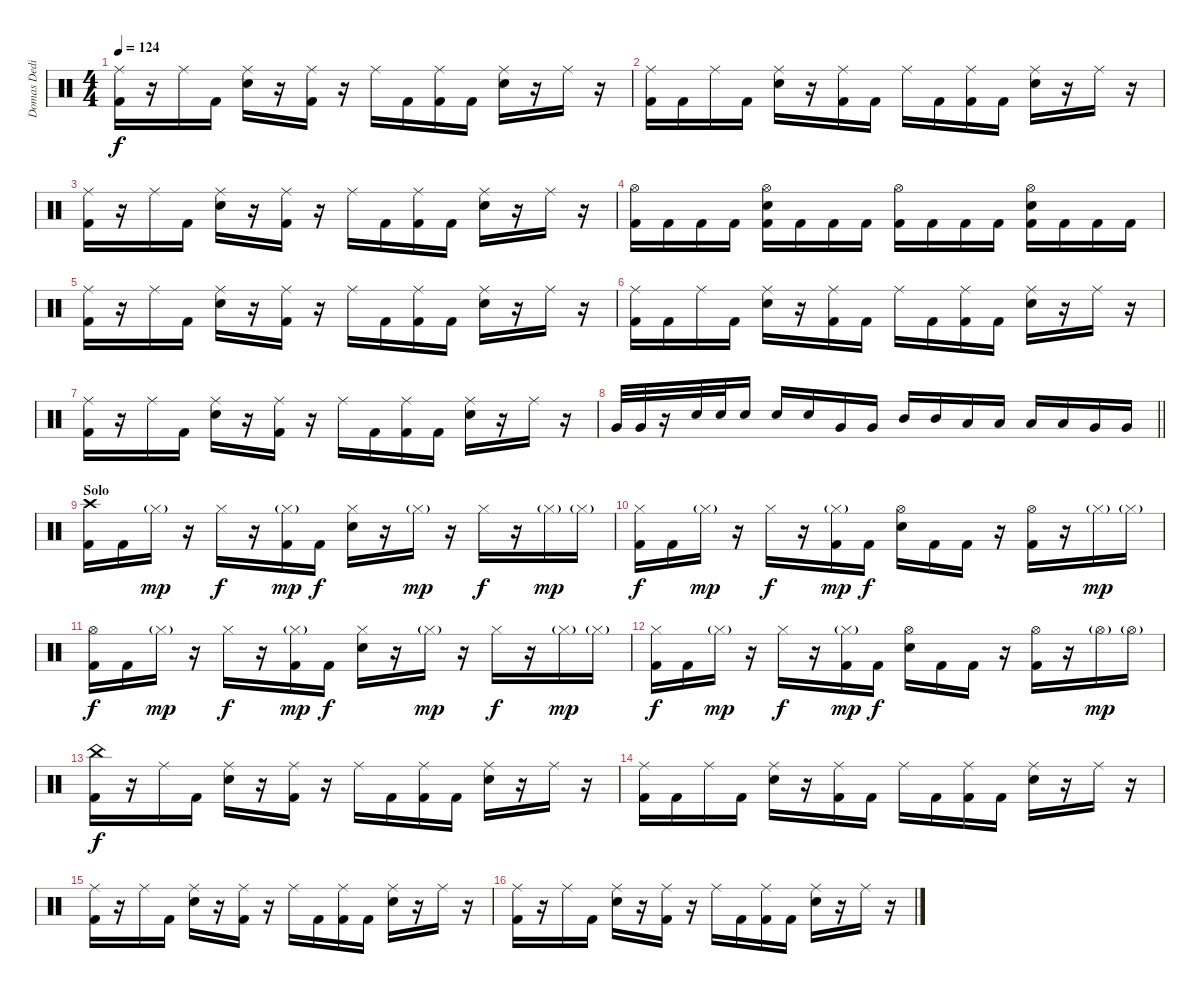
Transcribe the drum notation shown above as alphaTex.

\track ("Domas Dedinas" "Domas Dedi") {instrument percussion}
\staff {score}
\articulation defaults
\ts (4 4)
\tempo 124
\clef neutral
\ks c
("Ride (middle)" "Kick (hit) 2").16{dy f} r.16 "Ride (middle)".16 "Kick (hit) 2".16 ("Ride (middle)" "Snare (hit) 2").16 r.16 ("Ride (middle)" "Kick (hit) 2").16 r.16 "Ride (middle)".16 "Kick (hit) 2".16 ("Ride (middle)" "Kick (hit) 2").16 "Kick (hit) 2".16 ("Ride (middle)" "Snare (hit) 2").16 r.16 "Ride (middle)".16 r.16 |
("Ride (middle)" "Kick (hit) 2").16 "Kick (hit) 2".16 "Ride (middle)".16 "Kick (hit) 2".16 ("Ride (middle)" "Snare (hit) 2").16 r.16 ("Ride (middle)" "Kick (hit) 2").16 "Kick (hit) 2".16 "Ride (middle)".16 "Kick (hit) 2".16 ("Ride (middle)" "Kick (hit) 2").16 "Kick (hit) 2".16 ("Ride (middle)" "Snare (hit) 2").16 r.16 "Ride (middle)".16 r.16 |
("Ride (middle)" "Kick (hit) 2").16 r.16 "Ride (middle)".16 "Kick (hit) 2".16 ("Ride (middle)" "Snare (hit) 2").16 r.16 ("Ride (middle)" "Kick (hit) 2").16 r.16 "Ride (middle)".16 "Kick (hit) 2".16 ("Ride (middle)" "Kick (hit) 2").16 "Kick (hit) 2".16 ("Ride (middle)" "Snare (hit) 2").16 r.16 "Ride (middle)".16 r.16 |
("Hi-Hat (open)" "Kick (hit) 2").16 "Kick (hit) 2".16 "Kick (hit) 2".16 "Kick (hit) 2".16 ("Hi-Hat (open)" "Snare (hit) 2" "Kick (hit) 2").16 "Kick (hit) 2".16 "Kick (hit) 2".16 "Kick (hit) 2".16 ("Hi-Hat (open)" "Kick (hit) 2").16 "Kick (hit) 2".16 "Kick (hit) 2".16 "Kick (hit) 2".16 ("Hi-Hat (open)" "Snare (hit) 2" "Kick (hit) 2").16 "Kick (hit) 2".16 "Kick (hit) 2".16 "Kick (hit) 2".16 |
("Ride (middle)" "Kick (hit) 2").16 r.16 "Ride (middle)".16 "Kick (hit) 2".16 ("Ride (middle)" "Snare (hit) 2").16 r.16 ("Ride (middle)" "Kick (hit) 2").16 r.16 "Ride (middle)".16 "Kick (hit) 2".16 ("Ride (middle)" "Kick (hit) 2").16 "Kick (hit) 2".16 ("Ride (middle)" "Snare (hit) 2").16 r.16 "Ride (middle)".16 r.16 |
("Ride (middle)" "Kick (hit) 2").16 "Kick (hit) 2".16 "Ride (middle)".16 "Kick (hit) 2".16 ("Ride (middle)" "Snare (hit) 2").16 r.16 ("Ride (middle)" "Kick (hit) 2").16 "Kick (hit) 2".16 "Ride (middle)".16 "Kick (hit) 2".16 ("Ride (middle)" "Kick (hit) 2").16 "Kick (hit) 2".16 ("Ride (middle)" "Snare (hit) 2").16 r.16 "Ride (middle)".16 r.16 |
("Ride (middle)" "Kick (hit) 2").16 r.16 "Ride (middle)".16 "Kick (hit) 2".16 ("Ride (middle)" "Snare (hit) 2").16 r.16 ("Ride (middle)" "Kick (hit) 2").16 r.16 "Ride (middle)".16 "Kick (hit) 2".16 ("Ride (middle)" "Kick (hit) 2").16 "Kick (hit) 2".16 ("Ride (middle)" "Snare (hit) 2").16 r.16 "Ride (middle)".16 r.16 |
\barLineRight lightlight "Very Low Tom (hit)".32 "Very Low Tom (hit)".32
r.16 "Snare (hit) 2".32 "Snare (hit) 2".32 "Snare (hit) 2".16 "Snare (hit) 2".16 "Snare (hit) 2".16 "Very Low Tom (hit)".16 "Very Low Tom (hit)".16 "Mid Tom (hit)".16 "Mid Tom (hit)".16 "Low Tom (hit)".16 "Low Tom (hit)".16 "Low Tom (hit)".16 "Low Tom (hit)".16 "Very Low Tom (hit)".16 "Very Low Tom (hit)".16 |
\section ("" "Solo")
("Crash high (hit)" "Kick (hit) 2").16 "Kick (hit) 2".16 "Hi-Hat (closed)"{g}.16{dy mp} r.16 "Hi-Hat (closed)".16{dy f} r.16 ("Hi-Hat (closed)"{g} "Kick (hit) 2").16{dy mp} "Kick (hit) 2".16{dy f} ("Hi-Hat (closed)" "Snare (hit) 2").16 r.16 "Hi-Hat (closed)"{g}.16{dy mp} r.16 "Hi-Hat (closed)".16{dy f} r.16 "Hi-Hat (closed)"{g}.16{dy mp} "Hi-Hat (closed)"{g}.16 |
("Hi-Hat (closed)" "Kick (hit) 2").16{dy f} "Kick (hit) 2".16 "Hi-Hat (closed)"{g}.16{dy mp} r.16 "Hi-Hat (closed)".16{dy f} r.16 ("Hi-Hat (closed)"{g} "Kick (hit) 2").16{dy mp} "Kick (hit) 2".16{dy f} ("Hi-Hat (open)" "Snare (hit) 2").16 "Kick (hit) 2".16 "Kick (hit) 2".16 r.16 ("Hi-Hat (open)" "Kick (hit) 2").16 r.16 "Hi-Hat (closed)"{g}.16{dy mp} "Hi-Hat (closed)"{g}.16 |
("Hi-Hat (open)" "Kick (hit) 2").16{dy f} "Kick (hit) 2".16 "Hi-Hat (closed)"{g}.16{dy mp} r.16 "Hi-Hat (closed)".16{dy f} r.16 ("Hi-Hat (closed)"{g} "Kick (hit) 2").16{dy mp} "Kick (hit) 2".16{dy f} ("Hi-Hat (closed)" "Snare (hit) 2").16 r.16 "Hi-Hat (closed)"{g}.16{dy mp} r.16 "Hi-Hat (closed)".16{dy f} r.16 "Hi-Hat (closed)"{g}.16{dy mp} "Hi-Hat (closed)"{g}.16 |
("Hi-Hat (closed)" "Kick (hit) 2").16{dy f} "Kick (hit) 2".16 "Hi-Hat (closed)"{g}.16{dy mp} r.16 "Hi-Hat (closed)".16{dy f} r.16 ("Hi-Hat (closed)"{g} "Kick (hit) 2").16{dy mp} "Kick (hit) 2".16{dy f} ("Hi-Hat (open)" "Snare (hit) 2").16 "Kick (hit) 2".16 "Kick (hit) 2".16 r.16 ("Hi-Hat (open)" "Kick (hit) 2").16 r.16 "Hi-Hat (open)"{g}.16{dy mp} "Hi-Hat (open)"{g}.16 |
("China (hit)" "Kick (hit) 2").16{dy f} r.16 "Ride (middle)".16 "Kick (hit) 2".16 ("Ride (middle)" "Snare (hit) 2").16 r.16 ("Ride (middle)" "Kick (hit) 2").16 r.16 "Ride (middle)".16 "Kick (hit) 2".16 ("Ride (middle)" "Kick (hit) 2").16 "Kick (hit) 2".16 ("Ride (middle)" "Snare (hit) 2").16 r.16 "Ride (middle)".16 r.16 |
("Ride (middle)" "Kick (hit) 2").16 "Kick (hit) 2".16 "Ride (middle)".16 "Kick (hit) 2".16 ("Ride (middle)" "Snare (hit) 2").16 r.16 ("Ride (middle)" "Kick (hit) 2").16 "Kick (hit) 2".16 "Ride (middle)".16 "Kick (hit) 2".16 ("Ride (middle)" "Kick (hit) 2").16 "Kick (hit) 2".16 ("Ride (middle)" "Snare (hit) 2").16 r.16 "Ride (middle)".16 r.16 |
("Ride (middle)" "Kick (hit) 2").16 r.16 "Ride (middle)".16 "Kick (hit) 2".16 ("Ride (middle)" "Snare (hit) 2").16 r.16 ("Ride (middle)" "Kick (hit) 2").16 r.16 "Ride (middle)".16 "Kick (hit) 2".16 ("Ride (middle)" "Kick (hit) 2").16 "Kick (hit) 2".16 ("Ride (middle)" "Snare (hit) 2").16 r.16 "Ride (middle)".16 r.16 |
("Ride (middle)" "Kick (hit) 2").16 r.16 "Ride (middle)".16 "Kick (hit) 2".16 ("Ride (middle)" "Snare (hit) 2").16 r.16 ("Ride (middle)" "Kick (hit) 2").16 r.16 "Ride (middle)".16 "Kick (hit) 2".16 ("Ride (middle)" "Kick (hit) 2").16 "Kick (hit) 2".16 ("Ride (middle)" "Snare (hit) 2").16 r.16 "Ride (middle)".16 r.16
